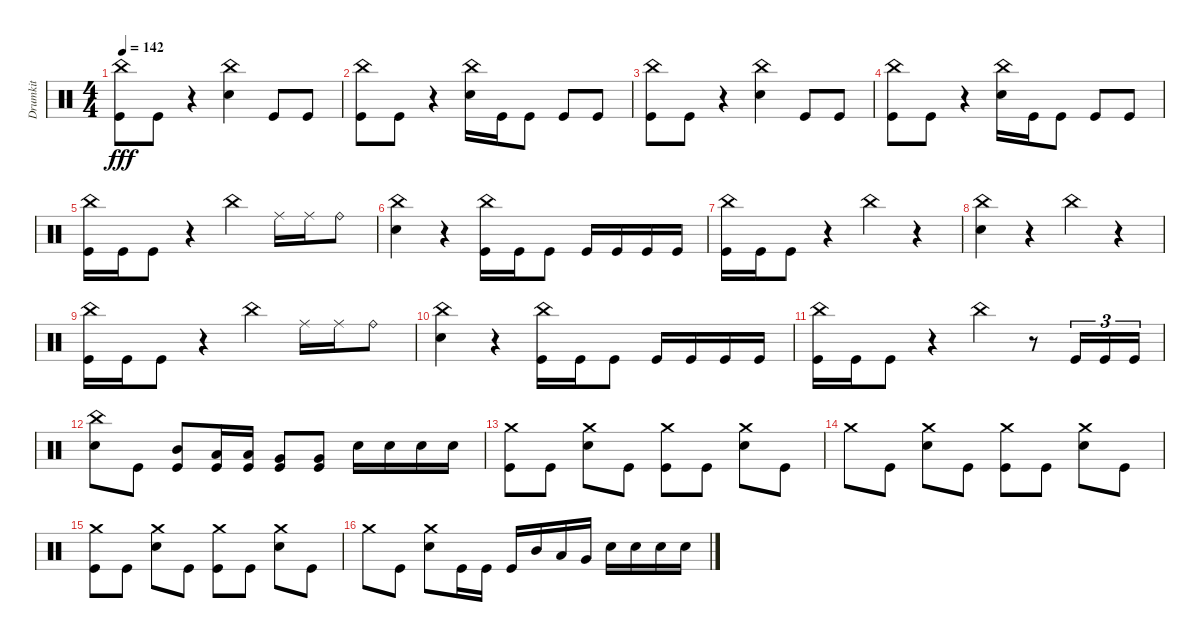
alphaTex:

\track ("Drumkit" "Drumkit") {instrument percussion}
\staff {score}
\articulation defaults
\ts (4 4)
\tempo 142
\clef neutral
\ks c
("Kick (hit)" "China (hit)").8{dy fff} "Kick (hit)".8 r.4 ("Snare (hit) 2" "China (hit)").4 "Kick (hit)".8 "Kick (hit)".8 |
("Kick (hit)" "China (hit)").8 "Kick (hit)".8 r.4 ("Snare (hit) 2" "China (hit)").16 "Kick (hit)".16 "Kick (hit)".8 "Kick (hit)".8 "Kick (hit)".8 |
("Kick (hit)" "China (hit)").8 "Kick (hit)".8 r.4 ("Snare (hit) 2" "China (hit)").4 "Kick (hit)".8 "Kick (hit)".8 |
("Kick (hit)" "China (hit)").8 "Kick (hit)".8 r.4 ("Snare (hit) 2" "China (hit)").16 "Kick (hit)".16 "Kick (hit)".8 "Kick (hit)".8 "Kick (hit)".8 |
("Kick (hit)" "China (hit)").16 "Kick (hit)".16 "Kick (hit)".8 r.4 "China (hit)".4 "Ride (middle)".16 "Ride (middle)".16 "Ride (bell)".8 |
("China (hit)" "Snare (hit) 2").4 r.4 ("Kick (hit)" "China (hit)").16 "Kick (hit)".16 "Kick (hit)".8 "Kick (hit)".16 "Kick (hit)".16 "Kick (hit)".16 "Kick (hit)".16 |
("Kick (hit)" "China (hit)").16 "Kick (hit)".16 "Kick (hit)".8 r.4 "China (hit)".4 r.4 |
("China (hit)" "Snare (hit) 2").4 r.4 "China (hit)".4 r.4 |
("Kick (hit)" "China (hit)").16 "Kick (hit)".16 "Kick (hit)".8 r.4 "China (hit)".4 "Ride (middle)".16 "Ride (middle)".16 "Ride (bell)".8 |
("China (hit)" "Snare (hit) 2").4 r.4 ("Kick (hit)" "China (hit)").16 "Kick (hit)".16 "Kick (hit)".8 "Kick (hit)".16 "Kick (hit)".16 "Kick (hit)".16 "Kick (hit)".16 |
("Kick (hit)" "China (hit)").16 "Kick (hit)".16 "Kick (hit)".8 r.4 "China (hit)".4 r.8 "Kick (hit)".16{tu (3 2)} "Kick (hit)".16{tu (3 2)} "Kick (hit)".16{tu (3 2)} |
("Snare (hit) 2" "China (hit)").8 "Kick (hit)".8 ("Kick (hit)" "Mid Tom (hit)").8 ("Kick (hit)" "Low Tom (hit)").16 ("Kick (hit)" "Low Tom (hit)").16 ("Kick (hit)" "Very Low Tom (hit)").8 ("Kick (hit)" "Very Low Tom (hit)").8 "Snare (hit) 2".16 "Snare (hit) 2".16 "Snare (hit) 2".16 "Snare (hit) 2".16 |
("Kick (hit)" "Crash medium (hit)").8 "Kick (hit)".8 ("Snare (hit) 2" "Crash medium (hit)").8 "Kick (hit)".8 ("Kick (hit)" "Crash medium (hit)").8 "Kick (hit)".8 ("Snare (hit) 2" "Crash medium (hit)").8 "Kick (hit)".8 |
"Crash medium (hit)".8 "Kick (hit)".8 ("Crash medium (hit)" "Snare (hit) 2").8 "Kick (hit)".8 ("Crash medium (hit)" "Kick (hit)").8 "Kick (hit)".8 ("Crash medium (hit)" "Snare (hit) 2").8 "Kick (hit)".8 |
("Kick (hit)" "Crash medium (hit)").8 "Kick (hit)".8 ("Snare (hit) 2" "Crash medium (hit)").8 "Kick (hit)".8 ("Kick (hit)" "Crash medium (hit)").8 "Kick (hit)".8 ("Snare (hit) 2" "Crash medium (hit)").8 "Kick (hit)".8 |
"Crash medium (hit)".8 "Kick (hit)".8 ("Crash medium (hit)" "Snare (hit) 2").8 "Kick (hit)".16 "Kick (hit)".16 "Kick (hit)".16 "Mid Tom (hit)".16 "Low Tom (hit)".16 "Very Low Tom (hit)".16 "Snare (hit) 2".16 "Snare (hit) 2".16 "Snare (hit) 2".16 "Snare (hit) 2".16
